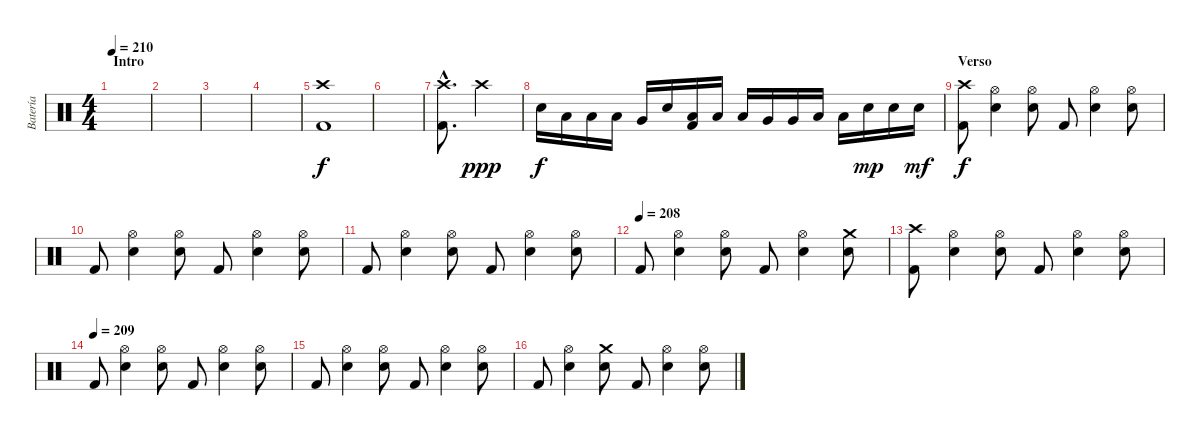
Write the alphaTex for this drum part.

\track ("Batería" "Batería") {instrument percussion}
\staff {score}
\articulation defaults
\ts (4 4)
\section ("" "Intro")
\tempo 210
\tempo 207
\tempo 210
\clef neutral
\ks c
|
|
|
|
("Crash high (hit)" "Kick (hit) 2").1 |
|
("Crash high (hit)"{hac} "Kick (hit) 2"{hac}).8{d} "Crash high (hit)".4{dy ppp} |
"Electric Snare (hit)".16{dy f} "Low Tom (hit)".16 "Low Tom (hit)".16 "Low Tom (hit)".16 "Very Low Tom (hit)".16 "Electric Snare (hit)".16 ("Low Tom (hit)" "Kick (hit) 2").16 "Low Tom (hit)".16 "Low Tom (hit)".16 "Very Low Tom (hit)".16 "Very Low Tom (hit)".16 "Low Floor Tom (hit)".16 "Low Floor Tom (hit)".16 "Electric Snare (hit)".16{dy mp} "Electric Snare (hit)".16 "Electric Snare (hit)".16{dy mf} |
\section ("" "Verso")
("Crash high (hit)" "Kick (hit) 2").8{dy f} ("Hi-Hat (open)" "Electric Snare (hit)").4 ("Hi-Hat (open)" "Electric Snare (hit)").8 "Kick (hit) 2".8 ("Hi-Hat (open)" "Electric Snare (hit)").4 ("Hi-Hat (open)" "Electric Snare (hit)").8 |
"Kick (hit) 2".8 ("Hi-Hat (open)" "Electric Snare (hit)").4 ("Hi-Hat (open)" "Electric Snare (hit)").8 "Kick (hit) 2".8 ("Hi-Hat (open)" "Electric Snare (hit)").4 ("Hi-Hat (open)" "Electric Snare (hit)").8 |
"Kick (hit) 2".8 ("Hi-Hat (open)" "Electric Snare (hit)").4 ("Hi-Hat (open)" "Electric Snare (hit)").8 "Kick (hit) 2".8 ("Hi-Hat (open)" "Electric Snare (hit)").4 ("Hi-Hat (open)" "Electric Snare (hit)").8 |
\tempo (208)
"Kick (hit) 2".8 ("Hi-Hat (open)" "Electric Snare (hit)").4 ("Hi-Hat (open)" "Electric Snare (hit)").8 "Kick (hit) 2".8 ("Hi-Hat (open)" "Electric Snare (hit)").4 ("Crash medium (hit)" "Electric Snare (hit)").8 |
("Crash high (hit)" "Kick (hit) 2").8 ("Hi-Hat (open)" "Electric Snare (hit)").4 ("Hi-Hat (open)" "Electric Snare (hit)").8 "Kick (hit) 2".8 ("Hi-Hat (open)" "Electric Snare (hit)").4 ("Hi-Hat (open)" "Electric Snare (hit)").8 |
\tempo (209)
"Kick (hit) 2".8 ("Hi-Hat (open)" "Electric Snare (hit)").4 ("Hi-Hat (open)" "Electric Snare (hit)").8 "Kick (hit) 2".8 ("Hi-Hat (open)" "Electric Snare (hit)").4 ("Hi-Hat (open)" "Electric Snare (hit)").8 |
"Kick (hit) 2".8 ("Hi-Hat (open)" "Electric Snare (hit)").4 ("Hi-Hat (open)" "Electric Snare (hit)").8 "Kick (hit) 2".8 ("Hi-Hat (open)" "Electric Snare (hit)").4 ("Hi-Hat (open)" "Electric Snare (hit)").8 |
"Kick (hit) 2".8 ("Hi-Hat (open)" "Electric Snare (hit)").4 ("Crash medium (hit)" "Electric Snare (hit)").8 "Kick (hit) 2".8 ("Hi-Hat (open)" "Electric Snare (hit)").4 ("Hi-Hat (open)" "Electric Snare (hit)").8
